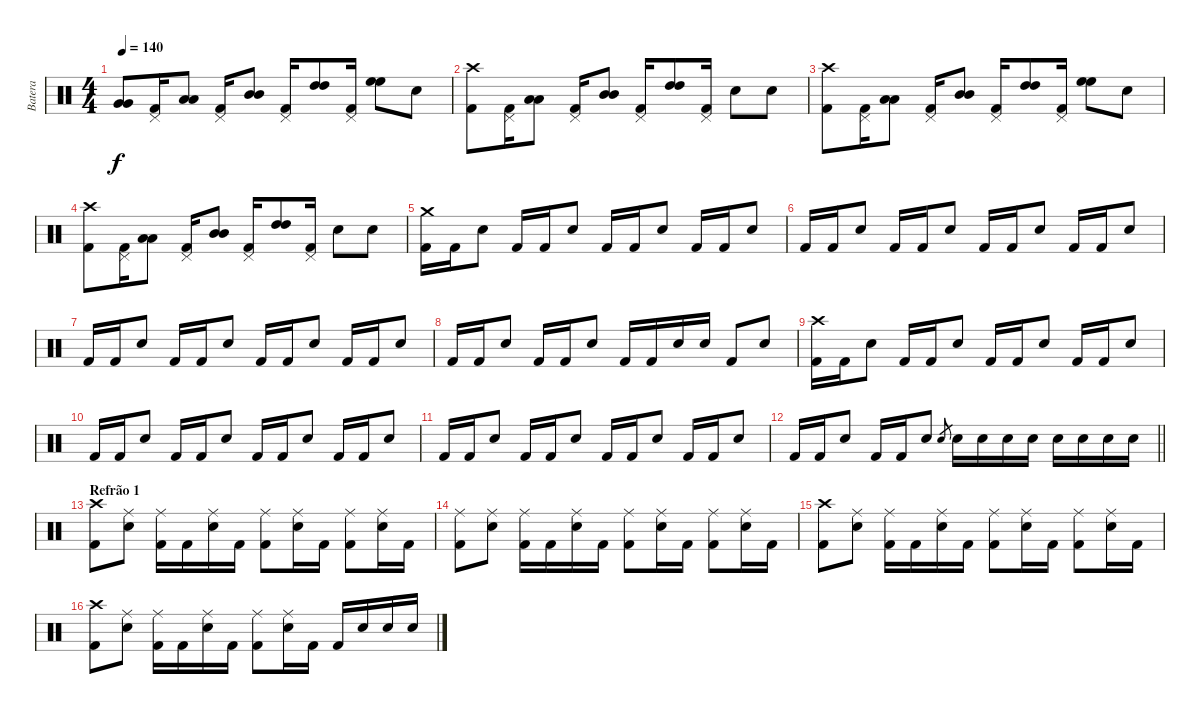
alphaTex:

\track ("Batera" "Batera") {instrument percussion}
\staff {score}
\articulation defaults
\ts (4 4)
\tempo 140
\clef neutral
\ks c
("Very Low Tom (hit)" "Very Low Tom (hit)").8{dy f} ("Pedal Hi-Hat (hit)" "Kick (hit) 2").16 ("Low Tom (hit)" "Low Tom (hit)").8 ("Pedal Hi-Hat (hit)" "Kick (hit) 2").16 ("Mid Tom (hit)" "Mid Tom (hit)").8 ("Pedal Hi-Hat (hit)" "Kick (hit) 2").16 ("High Tom (hit)" "High Tom (hit)").8 ("Pedal Hi-Hat (hit)" "Kick (hit) 2").16 ("High Floor Tom (hit)" "High Floor Tom (hit)").8 "Electric Snare (hit)".8 |
("Crash high (hit)" "Kick (hit) 2").8 ("Pedal Hi-Hat (hit)" "Kick (hit) 2").16 ("Low Tom (hit)" "Low Tom (hit)").8 ("Pedal Hi-Hat (hit)" "Kick (hit) 2").16 ("Mid Tom (hit)" "Mid Tom (hit)").8 ("Pedal Hi-Hat (hit)" "Kick (hit) 2").16 ("High Tom (hit)" "High Tom (hit)").8 ("Pedal Hi-Hat (hit)" "Kick (hit) 2").16 "Electric Snare (hit)".8 "Electric Snare (hit)".8 |
("Crash high (hit)" "Kick (hit) 2").8 ("Pedal Hi-Hat (hit)" "Kick (hit) 2").16 ("Low Tom (hit)" "Low Tom (hit)").8 ("Pedal Hi-Hat (hit)" "Kick (hit) 2").16 ("Mid Tom (hit)" "Mid Tom (hit)").8 ("Pedal Hi-Hat (hit)" "Kick (hit) 2").16 ("High Tom (hit)" "High Tom (hit)").8 ("Pedal Hi-Hat (hit)" "Kick (hit) 2").16 ("High Floor Tom (hit)" "High Floor Tom (hit)").8 "Electric Snare (hit)".8 |
("Crash high (hit)" "Kick (hit) 2").8 ("Pedal Hi-Hat (hit)" "Kick (hit) 2").16 ("Low Tom (hit)" "Low Tom (hit)").8 ("Pedal Hi-Hat (hit)" "Kick (hit) 2").16 ("Mid Tom (hit)" "Mid Tom (hit)").8 ("Pedal Hi-Hat (hit)" "Kick (hit) 2").16 ("High Tom (hit)" "High Tom (hit)").8 ("Pedal Hi-Hat (hit)" "Kick (hit) 2").16 "Electric Snare (hit)".8 "Electric Snare (hit)".8 |
("Crash medium (hit)" "Kick (hit) 2").16 "Kick (hit) 2".16 "Electric Snare (hit)".8 "Kick (hit) 2".16 "Kick (hit) 2".16 "Electric Snare (hit)".8 "Kick (hit) 2".16 "Kick (hit) 2".16 "Electric Snare (hit)".8 "Kick (hit) 2".16 "Kick (hit) 2".16 "Electric Snare (hit)".8 |
"Kick (hit) 2".16 "Kick (hit) 2".16 "Electric Snare (hit)".8 "Kick (hit) 2".16 "Kick (hit) 2".16 "Electric Snare (hit)".8 "Kick (hit) 2".16 "Kick (hit) 2".16 "Electric Snare (hit)".8 "Kick (hit) 2".16 "Kick (hit) 2".16 "Electric Snare (hit)".8 |
"Kick (hit) 2".16 "Kick (hit) 2".16 "Electric Snare (hit)".8 "Kick (hit) 2".16 "Kick (hit) 2".16 "Electric Snare (hit)".8 "Kick (hit) 2".16 "Kick (hit) 2".16 "Electric Snare (hit)".8 "Kick (hit) 2".16 "Kick (hit) 2".16 "Electric Snare (hit)".8 |
"Kick (hit) 2".16 "Kick (hit) 2".16 "Electric Snare (hit)".8 "Kick (hit) 2".16 "Kick (hit) 2".16 "Electric Snare (hit)".8 "Kick (hit) 2".16 "Kick (hit) 2".16 "Electric Snare (hit)".16 "Electric Snare (hit)".16 "Kick (hit) 2".8 "Electric Snare (hit)".8 |
("Crash high (hit)" "Kick (hit) 2").16 "Kick (hit) 2".16 "Electric Snare (hit)".8 "Kick (hit) 2".16 "Kick (hit) 2".16 "Electric Snare (hit)".8 "Kick (hit) 2".16 "Kick (hit) 2".16 "Electric Snare (hit)".8 "Kick (hit) 2".16 "Kick (hit) 2".16 "Electric Snare (hit)".8 |
"Kick (hit) 2".16 "Kick (hit) 2".16 "Electric Snare (hit)".8 "Kick (hit) 2".16 "Kick (hit) 2".16 "Electric Snare (hit)".8 "Kick (hit) 2".16 "Kick (hit) 2".16 "Electric Snare (hit)".8 "Kick (hit) 2".16 "Kick (hit) 2".16 "Electric Snare (hit)".8 |
"Kick (hit) 2".16 "Kick (hit) 2".16 "Electric Snare (hit)".8 "Kick (hit) 2".16 "Kick (hit) 2".16 "Electric Snare (hit)".8 "Kick (hit) 2".16 "Kick (hit) 2".16 "Electric Snare (hit)".8 "Kick (hit) 2".16 "Kick (hit) 2".16 "Electric Snare (hit)".8 |
\barLineRight lightlight "Kick (hit) 2".16 "Kick (hit) 2".16 "Electric Snare (hit)".8 "Kick (hit) 2".16 "Kick (hit) 2".16 "Electric Snare (hit)".8 "Electric Snare (hit)".8{gr} "Electric Snare (hit)".16 "Electric Snare (hit)".16 "Electric Snare (hit)".16 "Electric Snare (hit)".16 "Electric Snare (hit)".16 "Electric Snare (hit)".16 "Electric Snare (hit)".16 "Electric Snare (hit)".16
|
\section ("" "Refrão 1")
("Crash high (hit)" "Kick (hit) 2").8 ("Ride (middle)" "Electric Snare (hit)").8 ("Ride (middle)" "Kick (hit) 2").16 "Kick (hit) 2".16 ("Ride (middle)" "Electric Snare (hit)").16 "Kick (hit) 2".16 ("Ride (middle)" "Kick (hit) 2").8 ("Ride (middle)" "Electric Snare (hit)").16 "Kick (hit) 2".16 ("Ride (middle)" "Kick (hit) 2").8 ("Ride (middle)" "Electric Snare (hit)").16 "Kick (hit) 2".16 |
("Ride (middle)" "Kick (hit) 2").8 ("Ride (middle)" "Electric Snare (hit)").8 ("Ride (middle)" "Kick (hit) 2").16 "Kick (hit) 2".16 ("Ride (middle)" "Electric Snare (hit)").16 "Kick (hit) 2".16 ("Ride (middle)" "Kick (hit) 2").8 ("Ride (middle)" "Electric Snare (hit)").16 "Kick (hit) 2".16 ("Ride (middle)" "Kick (hit) 2").8 ("Ride (middle)" "Electric Snare (hit)").16 "Kick (hit) 2".16 |
("Crash high (hit)" "Kick (hit) 2").8 ("Ride (middle)" "Electric Snare (hit)").8 ("Ride (middle)" "Kick (hit) 2").16 "Kick (hit) 2".16 ("Ride (middle)" "Electric Snare (hit)").16 "Kick (hit) 2".16 ("Ride (middle)" "Kick (hit) 2").8 ("Ride (middle)" "Electric Snare (hit)").16 "Kick (hit) 2".16 ("Ride (middle)" "Kick (hit) 2").8 ("Ride (middle)" "Electric Snare (hit)").16 "Kick (hit) 2".16 |
("Crash high (hit)" "Kick (hit) 2").8 ("Ride (middle)" "Electric Snare (hit)").8 ("Ride (middle)" "Kick (hit) 2").16 "Kick (hit) 2".16 ("Ride (middle)" "Electric Snare (hit)").16 "Kick (hit) 2".16 ("Ride (middle)" "Kick (hit) 2").8 ("Ride (middle)" "Electric Snare (hit)").16 "Kick (hit) 2".16 "Kick (hit) 2".16 "Electric Snare (hit)".16 "Electric Snare (hit)".16 "Electric Snare (hit)".16
